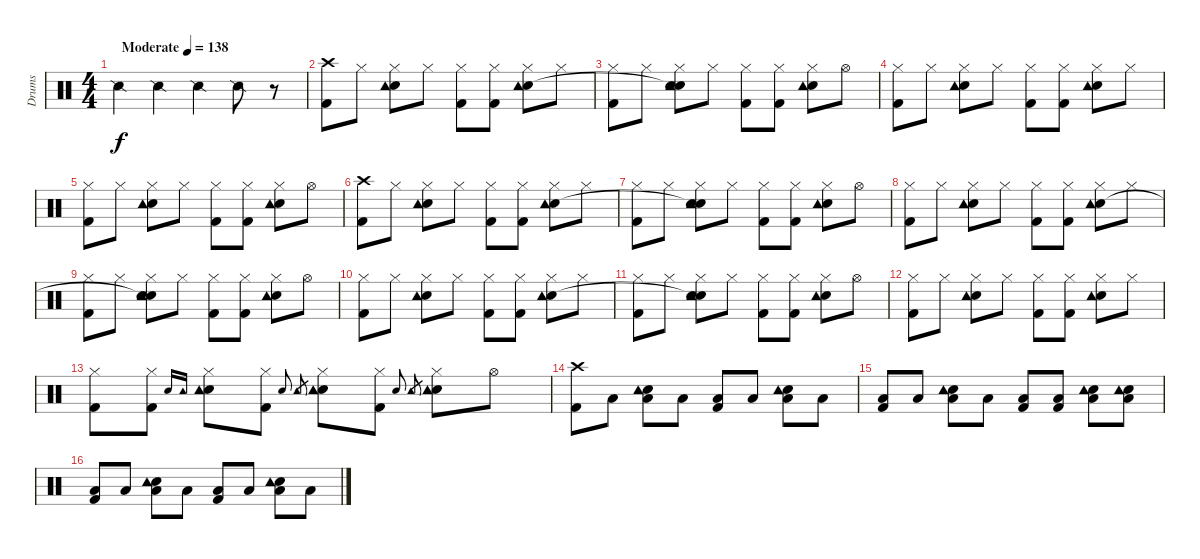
\track ("Drums" "Drums") {instrument percussion}
\staff {score}
\articulation defaults
\ts (4 4)
\tempo (138 "Moderate")
\clef neutral
\ks c "Snare (side stick) 2".4{dy f} "Snare (side stick) 2".4 "Snare (side stick) 2".4 "Snare (side stick) 2".8
r.8 |
("Kick (hit) 2" "Crash high (hit)").8 "Hi-Hat (closed)".8 ("Hi-Hat (closed)" "Electric Snare (hit)" "Tambourine (hit)").8 "Hi-Hat (closed)".8 ("Hi-Hat (closed)" "Kick (hit) 2").8 ("Hi-Hat (closed)" "Kick (hit) 2").8 ("Hi-Hat (closed)" "Electric Snare (hit)" "Tambourine (hit)").8 "Hi-Hat (closed)".8 |
("Hi-Hat (closed)" "Kick (hit) 2").8 "Hi-Hat (closed)".8 ("Hi-Hat (closed)" "Electric Snare (hit)" "Snare (hit)"{t} "Tambourine (hit)").8 "Hi-Hat (closed)".8 ("Hi-Hat (closed)" "Kick (hit) 2").8 ("Hi-Hat (closed)" "Kick (hit) 2").8 ("Hi-Hat (closed)" "Electric Snare (hit)" "Tambourine (hit)").8 "Hi-Hat (open)".8 |
("Hi-Hat (closed)" "Kick (hit) 2").8 "Hi-Hat (closed)".8 ("Hi-Hat (closed)" "Electric Snare (hit)" "Tambourine (hit)").8 "Hi-Hat (closed)".8 ("Hi-Hat (closed)" "Kick (hit) 2").8 ("Hi-Hat (closed)" "Kick (hit) 2").8 ("Hi-Hat (closed)" "Electric Snare (hit)" "Tambourine (hit)").8 "Hi-Hat (closed)".8 |
("Hi-Hat (closed)" "Kick (hit) 2").8 "Hi-Hat (closed)".8 ("Hi-Hat (closed)" "Electric Snare (hit)" "Tambourine (hit)").8 "Hi-Hat (closed)".8 ("Hi-Hat (closed)" "Kick (hit) 2").8 ("Hi-Hat (closed)" "Kick (hit) 2").8 ("Hi-Hat (closed)" "Electric Snare (hit)" "Tambourine (hit)").8 "Hi-Hat (open)".8 |
("Kick (hit) 2" "Crash high (hit)").8 "Hi-Hat (closed)".8 ("Hi-Hat (closed)" "Electric Snare (hit)" "Tambourine (hit)").8 "Hi-Hat (closed)".8 ("Hi-Hat (closed)" "Kick (hit) 2").8 ("Hi-Hat (closed)" "Kick (hit) 2").8 ("Hi-Hat (closed)" "Electric Snare (hit)" "Tambourine (hit)").8 "Hi-Hat (closed)".8 |
("Hi-Hat (closed)" "Kick (hit) 2").8 "Hi-Hat (closed)".8 ("Hi-Hat (closed)" "Electric Snare (hit)" "Snare (hit)"{t} "Tambourine (hit)").8 "Hi-Hat (closed)".8 ("Hi-Hat (closed)" "Kick (hit) 2").8 ("Hi-Hat (closed)" "Kick (hit) 2").8 ("Hi-Hat (closed)" "Electric Snare (hit)" "Tambourine (hit)").8 "Hi-Hat (open)".8 |
("Hi-Hat (closed)" "Kick (hit) 2").8 "Hi-Hat (closed)".8 ("Hi-Hat (closed)" "Electric Snare (hit)" "Tambourine (hit)").8 "Hi-Hat (closed)".8 ("Hi-Hat (closed)" "Kick (hit) 2").8 ("Hi-Hat (closed)" "Kick (hit) 2").8 ("Hi-Hat (closed)" "Electric Snare (hit)" "Tambourine (hit)").8 "Hi-Hat (closed)".8 |
("Hi-Hat (closed)" "Kick (hit) 2").8 "Hi-Hat (closed)".8 ("Hi-Hat (closed)" "Electric Snare (hit)" "Snare (hit)"{t} "Tambourine (hit)").8 "Hi-Hat (closed)".8 ("Hi-Hat (closed)" "Kick (hit) 2").8 ("Hi-Hat (closed)" "Kick (hit) 2").8 ("Hi-Hat (closed)" "Electric Snare (hit)" "Tambourine (hit)").8 "Hi-Hat (open)".8 |
("Hi-Hat (closed)" "Kick (hit) 2").8 "Hi-Hat (closed)".8 ("Hi-Hat (closed)" "Electric Snare (hit)" "Tambourine (hit)").8 "Hi-Hat (closed)".8 ("Hi-Hat (closed)" "Kick (hit) 2").8 ("Hi-Hat (closed)" "Kick (hit) 2").8 ("Hi-Hat (closed)" "Electric Snare (hit)" "Tambourine (hit)").8 "Hi-Hat (closed)".8 |
("Hi-Hat (closed)" "Kick (hit) 2").8 "Hi-Hat (closed)".8 ("Hi-Hat (closed)" "Electric Snare (hit)" "Snare (hit)"{t} "Tambourine (hit)").8 "Hi-Hat (closed)".8 ("Hi-Hat (closed)" "Kick (hit) 2").8 ("Hi-Hat (closed)" "Kick (hit) 2").8 ("Hi-Hat (closed)" "Electric Snare (hit)" "Tambourine (hit)").8 "Hi-Hat (open)".8 |
("Hi-Hat (closed)" "Kick (hit) 2").8 "Hi-Hat (closed)".8 ("Hi-Hat (closed)" "Electric Snare (hit)" "Tambourine (hit)").8 "Hi-Hat (closed)".8 ("Hi-Hat (closed)" "Kick (hit) 2").8 ("Hi-Hat (closed)" "Kick (hit) 2").8 ("Hi-Hat (closed)" "Electric Snare (hit)" "Tambourine (hit)").8 "Hi-Hat (closed)".8 |
("Hi-Hat (closed)" "Kick (hit) 2").8 ("Hi-Hat (closed)" "Kick (hit) 2").8 "Electric Snare (hit)".16{gr onbeat} "Tambourine (hit)".16{gr onbeat} ("Hi-Hat (closed)" "Electric Snare (hit)" "Tambourine (hit)").8 ("Hi-Hat (closed)" "Kick (hit) 2").8 "Electric Snare (hit)".16{gr onbeat} "Tambourine (hit)".16{gr} ("Hi-Hat (closed)" "Electric Snare (hit)" "Tambourine (hit)").8 ("Hi-Hat (closed)" "Kick (hit) 2").8 "Electric Snare (hit)".16{gr onbeat} "Tambourine (hit)".16{gr} ("Hi-Hat (closed)" "Electric Snare (hit)" "Tambourine (hit)").8 "Hi-Hat (open)".8 |
("Crash high (hit)" "Kick (hit) 2").8 "Low Floor Tom (hit)".8 ("Low Floor Tom (hit)" "Electric Snare (hit)" "Tambourine (hit)").8 "Low Floor Tom (hit)".8 ("Low Floor Tom (hit)" "Kick (hit) 2").8 "Low Floor Tom (hit)".8 ("Low Floor Tom (hit)" "Electric Snare (hit)" "Tambourine (hit)").8 "Low Floor Tom (hit)".8 |
("Low Floor Tom (hit)" "Kick (hit) 2").8 "Low Floor Tom (hit)".8 ("Low Floor Tom (hit)" "Electric Snare (hit)" "Tambourine (hit)").8 "Low Floor Tom (hit)".8 ("Low Floor Tom (hit)" "Kick (hit) 2").8 ("Low Floor Tom (hit)" "Kick (hit) 2").8 ("Low Floor Tom (hit)" "Electric Snare (hit)" "Tambourine (hit)").8 ("Low Floor Tom (hit)" "Electric Snare (hit)" "Tambourine (hit)").8 |
("Low Floor Tom (hit)" "Kick (hit) 2").8 "Low Floor Tom (hit)".8 ("Low Floor Tom (hit)" "Electric Snare (hit)" "Tambourine (hit)").8 "Low Floor Tom (hit)".8 ("Low Floor Tom (hit)" "Kick (hit) 2").8 "Low Floor Tom (hit)".8 ("Low Floor Tom (hit)" "Electric Snare (hit)" "Tambourine (hit)").8 "Low Floor Tom (hit)".8
